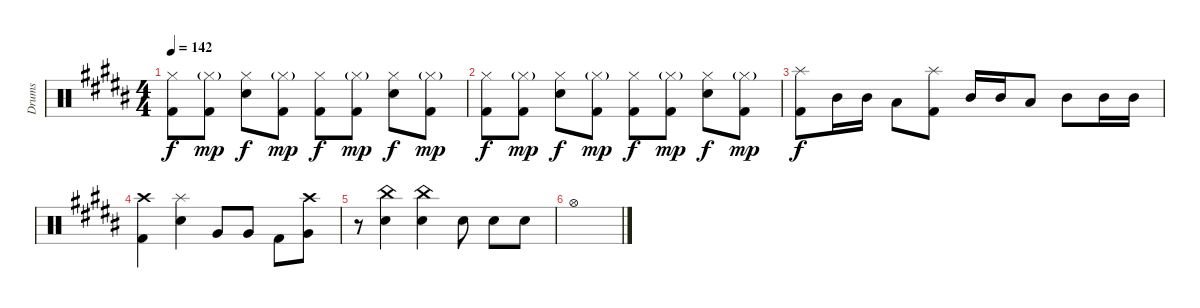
\track ("Drums" "Drums") {instrument percussion}
\staff {score}
\articulation defaults
\ts (4 4)
\tempo 142
\clef neutral
\ks b
("Hi-Hat (closed)" "Kick (hit) 2").8{dy f} ("Hi-Hat (closed)"{g} "Kick (hit) 2").8{dy mp} ("Hi-Hat (closed)" "Electric Snare (hit)").8{dy f} ("Hi-Hat (closed)"{g} "Kick (hit) 2").8{dy mp} ("Hi-Hat (closed)" "Kick (hit) 2").8{dy f} ("Hi-Hat (closed)"{g} "Kick (hit) 2").8{dy mp} ("Hi-Hat (closed)" "Electric Snare (hit)").8{dy f} ("Hi-Hat (closed)"{g} "Kick (hit) 2").8{dy mp} |
("Hi-Hat (closed)" "Kick (hit) 2").8{dy f} ("Hi-Hat (closed)"{g} "Kick (hit) 2").8{dy mp} ("Hi-Hat (closed)" "Electric Snare (hit)").8{dy f} ("Hi-Hat (closed)"{g} "Kick (hit) 2").8{dy mp} ("Hi-Hat (closed)" "Kick (hit) 2").8{dy f} ("Hi-Hat (closed)"{g} "Kick (hit) 2").8{dy mp} ("Hi-Hat (closed)" "Electric Snare (hit)").8{dy f} ("Hi-Hat (closed)"{g} "Kick (hit) 2").8{dy mp} |
("Splash (hit)" "Kick (hit) 2").8{dy f} "Mid Tom (hit)".16 "Mid Tom (hit)".16 "Low Tom (hit)".8 ("Splash (hit)" "Kick (hit) 2").8 "Mid Tom (hit)".16 "Mid Tom (hit)".16 "Low Tom (hit)".8 "Mid Tom (hit)".8 "Mid Tom (hit)".16 "Mid Tom (hit)".16 |
("Crash high (hit)" "Kick (hit) 2").4 ("Splash (hit)" "Electric Snare (hit)").4 "Very Low Tom (hit)".8 "Very Low Tom (hit)".8 "Kick (hit) 2".8 ("Crash high (hit)" "Very Low Tom (hit)").8 |
r.8 ("China (hit)" "Electric Snare (hit)").4 ("China (hit)" "Electric Snare (hit)").4 "Snare (hit) 2".8 "Snare (hit) 2".8 "Snare (hit) 2".8 |
"Hi-Hat (open)".1
